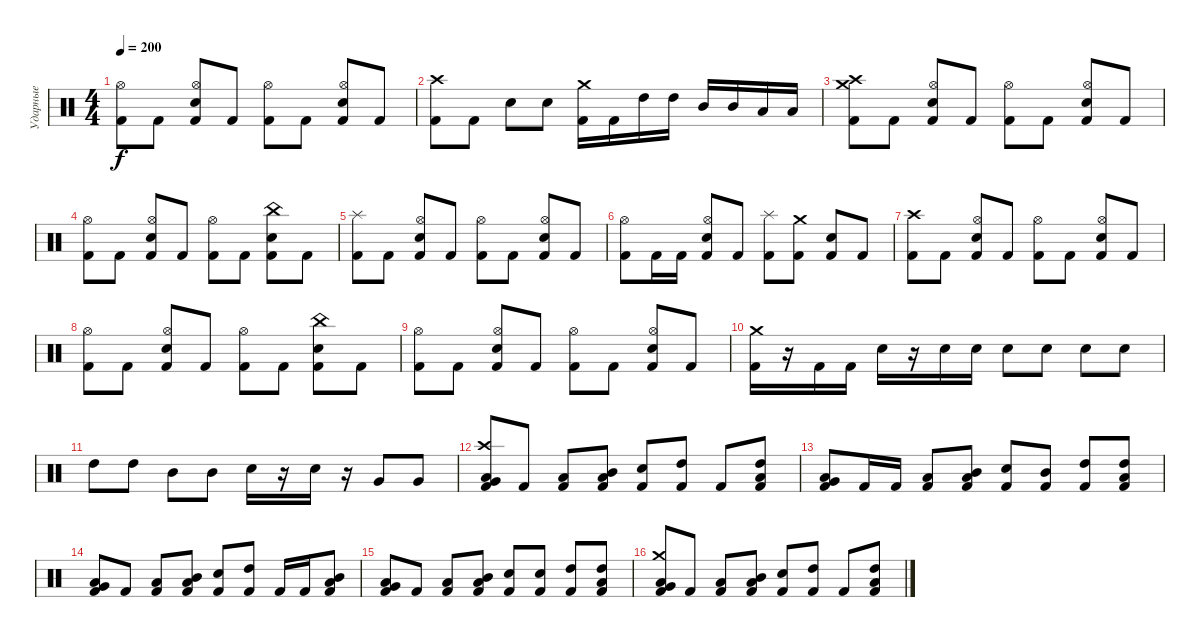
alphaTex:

\track ("Ударные" "Ударные") {instrument percussion}
\staff {score}
\articulation defaults
\ts (4 4)
\tempo 200
\clef neutral
\ks c
("Kick (hit) 2" "Hi-Hat (open)").8{dy f} "Kick (hit) 2".8 ("Kick (hit) 2" "Electric Snare (hit)" "Hi-Hat (open)").8 "Kick (hit) 2".8 ("Kick (hit) 2" "Hi-Hat (open)").8 "Kick (hit) 2".8 ("Kick (hit) 2" "Electric Snare (hit)" "Hi-Hat (open)").8 "Kick (hit) 2".8 |
("Kick (hit) 2" "Crash high (hit)").8 "Kick (hit) 2".8 "Electric Snare (hit)".8 "Electric Snare (hit)".8 ("Kick (hit) 2" "Crash medium (hit)").16 "Kick (hit) 2".16 "High Tom (hit)".16 "High Tom (hit)".16 "Mid Tom (hit)".16 "Mid Tom (hit)".16 "Low Tom (hit)".16 "Low Tom (hit)".16 |
("Kick (hit) 2" "Crash high (hit)" "Crash medium (hit)").8 "Kick (hit) 2".8 ("Kick (hit) 2" "Electric Snare (hit)" "Hi-Hat (open)").8 "Kick (hit) 2".8 ("Kick (hit) 2" "Hi-Hat (open)").8 "Kick (hit) 2".8 ("Kick (hit) 2" "Electric Snare (hit)" "Hi-Hat (open)").8 "Kick (hit) 2".8 |
("Kick (hit) 2" "Hi-Hat (open)").8 "Kick (hit) 2".8 ("Kick (hit) 2" "Electric Snare (hit)" "Hi-Hat (open)").8 "Kick (hit) 2".8 ("Kick (hit) 2" "Hi-Hat (open)").8 "Kick (hit) 2".8 ("Kick (hit) 2" "Electric Snare (hit)" "China (hit)").8 "Kick (hit) 2".8 |
("Kick (hit) 2" "Splash (hit)").8 "Kick (hit) 2".8 ("Kick (hit) 2" "Electric Snare (hit)" "Hi-Hat (open)").8 "Kick (hit) 2".8 ("Kick (hit) 2" "Hi-Hat (open)").8 "Kick (hit) 2".8 ("Kick (hit) 2" "Electric Snare (hit)" "Hi-Hat (open)").8 "Kick (hit) 2".8 |
("Kick (hit) 2" "Hi-Hat (open)").8 "Kick (hit) 2".16 "Kick (hit) 2".16 ("Kick (hit) 2" "Electric Snare (hit)" "Hi-Hat (open)").8 "Kick (hit) 2".8 ("Kick (hit) 2" "Splash (hit)").8 ("Kick (hit) 2" "Crash medium (hit)").8 ("Kick (hit) 2" "Electric Snare (hit)").8 "Kick (hit) 2".8 |
("Kick (hit) 2" "Crash high (hit)").8 "Kick (hit) 2".8 ("Kick (hit) 2" "Electric Snare (hit)" "Hi-Hat (open)").8 "Kick (hit) 2".8 ("Kick (hit) 2" "Hi-Hat (open)").8 "Kick (hit) 2".8 ("Kick (hit) 2" "Electric Snare (hit)" "Hi-Hat (open)").8 "Kick (hit) 2".8 |
("Kick (hit) 2" "Hi-Hat (open)").8 "Kick (hit) 2".8 ("Kick (hit) 2" "Electric Snare (hit)" "Hi-Hat (open)").8 "Kick (hit) 2".8 ("Kick (hit) 2" "Hi-Hat (open)").8 "Kick (hit) 2".8 ("Kick (hit) 2" "Electric Snare (hit)" "China (hit)").8 "Kick (hit) 2".8 |
("Kick (hit) 2" "Hi-Hat (open)").8 "Kick (hit) 2".8 ("Kick (hit) 2" "Electric Snare (hit)" "Hi-Hat (open)").8 "Kick (hit) 2".8 ("Kick (hit) 2" "Hi-Hat (open)").8 "Kick (hit) 2".8 ("Kick (hit) 2" "Electric Snare (hit)" "Hi-Hat (open)").8 "Kick (hit) 2".8 |
("Kick (hit) 2" "Crash medium (hit)").16 r.16 "Kick (hit) 2".16 "Kick (hit) 2".16 "Electric Snare (hit)".16 r.16 "Electric Snare (hit)".16 "Electric Snare (hit)".16 "Electric Snare (hit)".8 "Electric Snare (hit)".8 "Electric Snare (hit)".8 "Electric Snare (hit)".8 |
"High Tom (hit)".8 "High Tom (hit)".8 "Mid Tom (hit)".8 "Mid Tom (hit)".8 "Electric Snare (hit)".16 r.16 "Electric Snare (hit)".16 r.16 "Very Low Tom (hit)".8 "Very Low Tom (hit)".8 |
("Kick (hit) 2" "Low Floor Tom (hit)" "Very Low Tom (hit)" "Crash high (hit)").8 "Kick (hit) 2".8 ("Kick (hit) 2" "Low Tom (hit)").8 ("Kick (hit) 2" "Mid Tom (hit)" "Low Tom (hit)").8 ("Kick (hit) 2" "Electric Snare (hit)").8 ("Kick (hit) 2" "High Tom (hit)").8 "Kick (hit) 2".8 ("Kick (hit) 2" "Low Tom (hit)" "High Tom (hit)").8 |
("Kick (hit) 2" "Low Floor Tom (hit)" "Very Low Tom (hit)").8 "Kick (hit) 2".16 "Kick (hit) 2".16 ("Kick (hit) 2" "Low Tom (hit)").8 ("Kick (hit) 2" "Mid Tom (hit)" "Low Tom (hit)").8 ("Kick (hit) 2" "Electric Snare (hit)").8 ("Kick (hit) 2" "Mid Tom (hit)").8 ("Kick (hit) 2" "High Tom (hit)").8 ("Kick (hit) 2" "Low Tom (hit)" "High Tom (hit)").8 |
("Kick (hit) 2" "Low Floor Tom (hit)" "Very Low Tom (hit)").8 "Kick (hit) 2".8 ("Kick (hit) 2" "Low Tom (hit)").8 ("Kick (hit) 2" "Mid Tom (hit)" "Low Tom (hit)").8 ("Kick (hit) 2" "Electric Snare (hit)").8 ("Kick (hit) 2" "High Tom (hit)").8 "Kick (hit) 2".16 "Kick (hit) 2".16 ("Kick (hit) 2" "Low Tom (hit)" "Mid Tom (hit)").8 |
("Kick (hit) 2" "Low Floor Tom (hit)" "Very Low Tom (hit)").8 "Kick (hit) 2".8 ("Kick (hit) 2" "Low Tom (hit)").8 ("Kick (hit) 2" "Mid Tom (hit)" "Low Tom (hit)").8 ("Kick (hit) 2" "Electric Snare (hit)").8 ("Kick (hit) 2" "Electric Snare (hit)").8 ("Kick (hit) 2" "High Tom (hit)").8 ("Kick (hit) 2" "Low Tom (hit)" "High Tom (hit)").8 |
("Kick (hit) 2" "Low Floor Tom (hit)" "Very Low Tom (hit)" "Crash medium (hit)").8 "Kick (hit) 2".8 ("Kick (hit) 2" "Low Tom (hit)").8 ("Kick (hit) 2" "Mid Tom (hit)" "Low Tom (hit)").8 ("Kick (hit) 2" "Electric Snare (hit)").8 ("Kick (hit) 2" "High Tom (hit)").8 "Kick (hit) 2".8 ("Kick (hit) 2" "Low Tom (hit)" "High Tom (hit)").8
